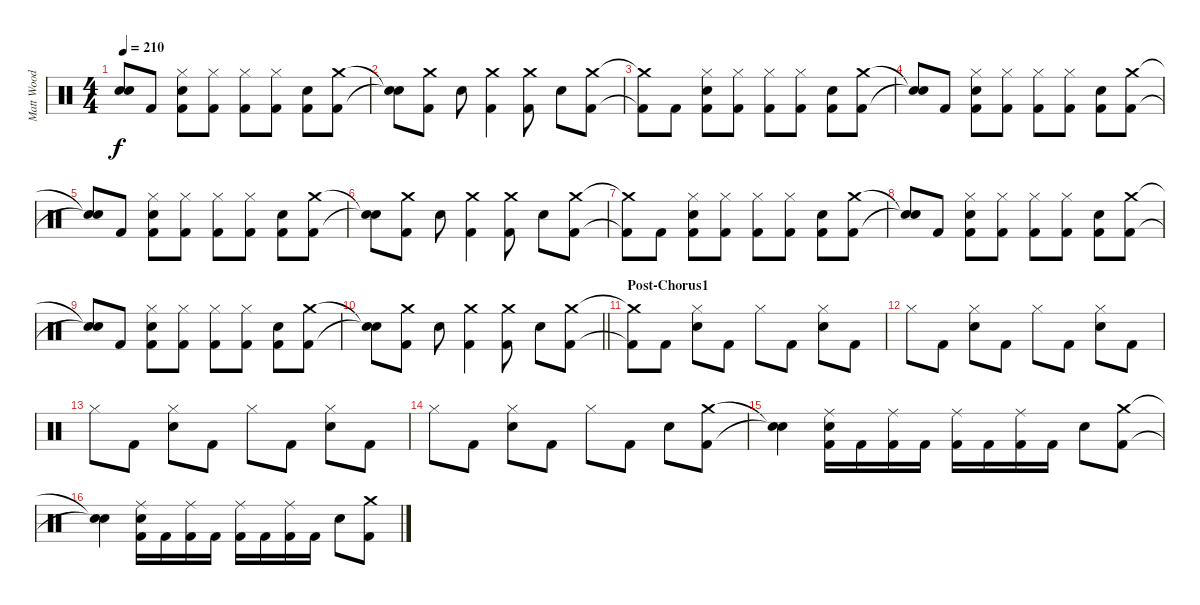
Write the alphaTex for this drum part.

\track ("Matt Wood" "Matt Wood") {instrument percussion}
\staff {score}
\articulation defaults
\ts (4 4)
\tempo 210
\clef neutral
\ks c
("Snare (hit)"{t} "Snare (hit)"{t}).8{dy f} "Kick (hit) 2".8 ("Hi-Hat (closed)" "Snare (hit) 2" "Kick (hit) 2").8 ("Hi-Hat (closed)" "Kick (hit) 2").8 ("Hi-Hat (closed)" "Kick (hit) 2").8 ("Hi-Hat (closed)" "Kick (hit) 2").8 ("Snare (hit) 2" "Kick (hit) 2").8 ("Crash medium (hit)" "Kick (hit) 2").8 |
("Snare (hit)"{t} "Snare (hit)"{t}).8 ("Crash medium (hit)" "Kick (hit) 2").8 "Snare (hit) 2".8 ("Crash medium (hit)" "Kick (hit) 2").4 ("Crash medium (hit)" "Kick (hit) 2").8 "Snare (hit) 2".8 ("Crash medium (hit)" "Kick (hit) 2").8 |
("Crash medium (hit)"{t} "Kick (hit) 2"{t}).8 "Kick (hit) 2".8 ("Hi-Hat (closed)" "Snare (hit) 2" "Kick (hit) 2").8 ("Hi-Hat (closed)" "Kick (hit) 2").8 ("Hi-Hat (closed)" "Kick (hit) 2").8 ("Hi-Hat (closed)" "Kick (hit) 2").8 ("Snare (hit) 2" "Kick (hit) 2").8 ("Crash medium (hit)" "Kick (hit) 2").8 |
("Snare (hit)"{t} "Snare (hit)"{t}).8 "Kick (hit) 2".8 ("Hi-Hat (closed)" "Snare (hit) 2" "Kick (hit) 2").8 ("Hi-Hat (closed)" "Kick (hit) 2").8 ("Hi-Hat (closed)" "Kick (hit) 2").8 ("Hi-Hat (closed)" "Kick (hit) 2").8 ("Snare (hit) 2" "Kick (hit) 2").8 ("Crash medium (hit)" "Kick (hit) 2").8 |
("Snare (hit)"{t} "Snare (hit)"{t}).8 "Kick (hit) 2".8 ("Hi-Hat (closed)" "Snare (hit) 2" "Kick (hit) 2").8 ("Hi-Hat (closed)" "Kick (hit) 2").8 ("Hi-Hat (closed)" "Kick (hit) 2").8 ("Hi-Hat (closed)" "Kick (hit) 2").8 ("Snare (hit) 2" "Kick (hit) 2").8 ("Crash medium (hit)" "Kick (hit) 2").8 |
("Snare (hit)"{t} "Snare (hit)"{t}).8 ("Crash medium (hit)" "Kick (hit) 2").8 "Snare (hit) 2".8 ("Crash medium (hit)" "Kick (hit) 2").4 ("Crash medium (hit)" "Kick (hit) 2").8 "Snare (hit) 2".8 ("Crash medium (hit)" "Kick (hit) 2").8 |
("Crash medium (hit)"{t} "Kick (hit) 2"{t}).8 "Kick (hit) 2".8 ("Hi-Hat (closed)" "Snare (hit) 2" "Kick (hit) 2").8 ("Hi-Hat (closed)" "Kick (hit) 2").8 ("Hi-Hat (closed)" "Kick (hit) 2").8 ("Hi-Hat (closed)" "Kick (hit) 2").8 ("Snare (hit) 2" "Kick (hit) 2").8 ("Crash medium (hit)" "Kick (hit) 2").8 |
("Snare (hit)"{t} "Snare (hit)"{t}).8 "Kick (hit) 2".8 ("Hi-Hat (closed)" "Snare (hit) 2" "Kick (hit) 2").8 ("Hi-Hat (closed)" "Kick (hit) 2").8 ("Hi-Hat (closed)" "Kick (hit) 2").8 ("Hi-Hat (closed)" "Kick (hit) 2").8 ("Snare (hit) 2" "Kick (hit) 2").8 ("Crash medium (hit)" "Kick (hit) 2").8 |
("Snare (hit)"{t} "Snare (hit)"{t}).8 "Kick (hit) 2".8 ("Hi-Hat (closed)" "Snare (hit) 2" "Kick (hit) 2").8 ("Hi-Hat (closed)" "Kick (hit) 2").8 ("Hi-Hat (closed)" "Kick (hit) 2").8 ("Hi-Hat (closed)" "Kick (hit) 2").8 ("Snare (hit) 2" "Kick (hit) 2").8 ("Crash medium (hit)" "Kick (hit) 2").8 |
\barLineRight lightlight
("Snare (hit)"{t} "Snare (hit)"{t}).8 ("Crash medium (hit)" "Kick (hit) 2").8 "Snare (hit) 2".8 ("Crash medium (hit)" "Kick (hit) 2").4 ("Crash medium (hit)" "Kick (hit) 2").8 "Snare (hit) 2".8 ("Crash medium (hit)" "Kick (hit) 2").8 |
\section ("" "Post-Chorus1")
("Crash medium (hit)"{t} "Kick (hit) 2"{t}).8 "Kick (hit) 2".8 ("Hi-Hat (closed)" "Snare (hit) 2").8 "Kick (hit) 2".8 "Hi-Hat (closed)".8 "Kick (hit) 2".8 ("Hi-Hat (closed)" "Snare (hit) 2").8 "Kick (hit) 2".8 |
"Hi-Hat (closed)".8 "Kick (hit) 2".8 ("Hi-Hat (closed)" "Snare (hit) 2").8 "Kick (hit) 2".8 "Hi-Hat (closed)".8 "Kick (hit) 2".8 ("Hi-Hat (closed)" "Snare (hit) 2").8 "Kick (hit) 2".8 |
"Hi-Hat (closed)".8 "Kick (hit) 2".8 ("Hi-Hat (closed)" "Snare (hit) 2").8 "Kick (hit) 2".8 "Hi-Hat (closed)".8 "Kick (hit) 2".8 ("Hi-Hat (closed)" "Snare (hit) 2").8 "Kick (hit) 2".8 |
"Hi-Hat (closed)".8 "Kick (hit) 2".8 ("Hi-Hat (closed)" "Snare (hit) 2").8 "Kick (hit) 2".8 "Hi-Hat (closed)".8 "Kick (hit) 2".8 "Snare (hit) 2".8 ("Crash medium (hit)" "Kick (hit) 2").8 |
("Snare (hit)"{t} "Snare (hit)"{t}).4 ("Ride (middle)" "Snare (hit) 2" "Kick (hit) 2").16 "Kick (hit) 2".16 ("Ride (middle)" "Kick (hit) 2").16 "Kick (hit) 2".16 ("Ride (middle)" "Kick (hit) 2").16 "Kick (hit) 2".16 ("Ride (middle)" "Kick (hit) 2").16 "Kick (hit) 2".16 "Snare (hit) 2".8 ("Crash medium (hit)" "Kick (hit) 2").8 |
("Snare (hit)"{t} "Snare (hit)"{t}).4 ("Ride (middle)" "Snare (hit) 2" "Kick (hit) 2").16 "Kick (hit) 2".16 ("Ride (middle)" "Kick (hit) 2").16 "Kick (hit) 2".16 ("Ride (middle)" "Kick (hit) 2").16 "Kick (hit) 2".16 ("Ride (middle)" "Kick (hit) 2").16 "Kick (hit) 2".16 "Snare (hit) 2".8 ("Crash medium (hit)" "Kick (hit) 2").8
